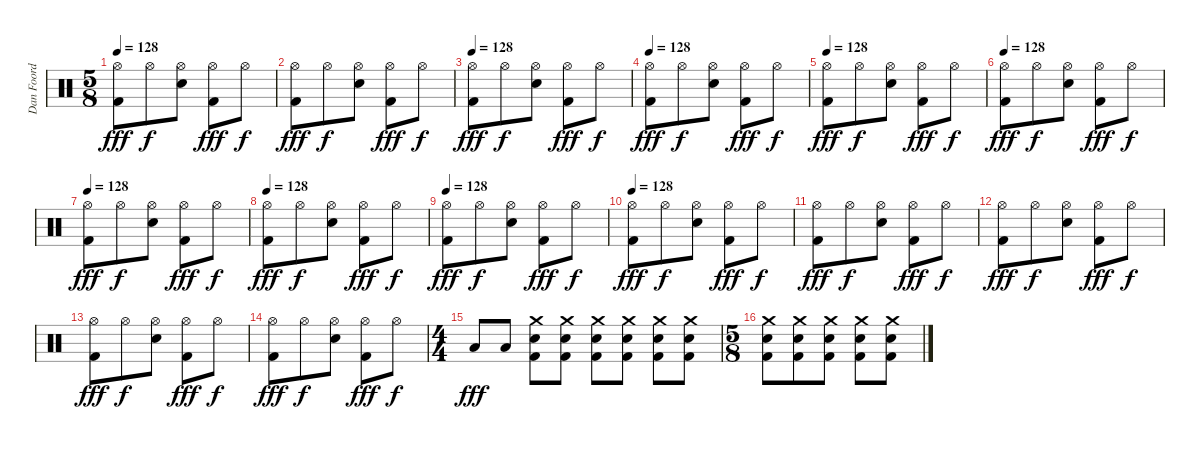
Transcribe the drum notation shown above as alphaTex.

\track ("Dan Foord 2" "Dan Foord ") {instrument percussion}
\staff {score}
\articulation defaults
\ts (5 8)
\tempo 128
\clef neutral
\ks c
("Kick (hit) 2" "Hi-Hat (open)").8{dy fff} "Hi-Hat (open)".8{dy f} ("Snare (hit) 2" "Hi-Hat (open)").8 ("Kick (hit) 2" "Hi-Hat (open)").8{dy fff} "Hi-Hat (open)".8{dy f} |
("Kick (hit) 2" "Hi-Hat (open)").8{dy fff} "Hi-Hat (open)".8{dy f} ("Snare (hit) 2" "Hi-Hat (open)").8 ("Kick (hit) 2" "Hi-Hat (open)").8{dy fff} "Hi-Hat (open)".8{dy f} |
\tempo 128
("Kick (hit) 2" "Hi-Hat (open)").8{dy fff} "Hi-Hat (open)".8{dy f} ("Snare (hit) 2" "Hi-Hat (open)").8 ("Kick (hit) 2" "Hi-Hat (open)").8{dy fff} "Hi-Hat (open)".8{dy f} |
\tempo 128
("Kick (hit) 2" "Hi-Hat (open)").8{dy fff} "Hi-Hat (open)".8{dy f} ("Snare (hit) 2" "Hi-Hat (open)").8 ("Kick (hit) 2" "Hi-Hat (open)").8{dy fff} "Hi-Hat (open)".8{dy f} |
\tempo 128
("Kick (hit) 2" "Hi-Hat (open)").8{dy fff} "Hi-Hat (open)".8{dy f} ("Snare (hit) 2" "Hi-Hat (open)").8 ("Kick (hit) 2" "Hi-Hat (open)").8{dy fff} "Hi-Hat (open)".8{dy f} |
\tempo 128
("Kick (hit) 2" "Hi-Hat (open)").8{dy fff} "Hi-Hat (open)".8{dy f} ("Snare (hit) 2" "Hi-Hat (open)").8 ("Kick (hit) 2" "Hi-Hat (open)").8{dy fff} "Hi-Hat (open)".8{dy f} |
\tempo 128
("Kick (hit) 2" "Hi-Hat (open)").8{dy fff} "Hi-Hat (open)".8{dy f} ("Snare (hit) 2" "Hi-Hat (open)").8 ("Kick (hit) 2" "Hi-Hat (open)").8{dy fff} "Hi-Hat (open)".8{dy f} |
\tempo 128
("Kick (hit) 2" "Hi-Hat (open)").8{dy fff} "Hi-Hat (open)".8{dy f} ("Snare (hit) 2" "Hi-Hat (open)").8 ("Kick (hit) 2" "Hi-Hat (open)").8{dy fff} "Hi-Hat (open)".8{dy f} |
\tempo 128
("Kick (hit) 2" "Hi-Hat (open)").8{dy fff} "Hi-Hat (open)".8{dy f} ("Snare (hit) 2" "Hi-Hat (open)").8 ("Kick (hit) 2" "Hi-Hat (open)").8{dy fff} "Hi-Hat (open)".8{dy f} |
\tempo 128
("Kick (hit) 2" "Hi-Hat (open)").8{dy fff} "Hi-Hat (open)".8{dy f} ("Snare (hit) 2" "Hi-Hat (open)").8 ("Kick (hit) 2" "Hi-Hat (open)").8{dy fff} "Hi-Hat (open)".8{dy f} |
("Kick (hit) 2" "Hi-Hat (open)").8{dy fff} "Hi-Hat (open)".8{dy f} ("Snare (hit) 2" "Hi-Hat (open)").8 ("Kick (hit) 2" "Hi-Hat (open)").8{dy fff} "Hi-Hat (open)".8{dy f} |
("Kick (hit) 2" "Hi-Hat (open)").8{dy fff} "Hi-Hat (open)".8{dy f} ("Snare (hit) 2" "Hi-Hat (open)").8 ("Kick (hit) 2" "Hi-Hat (open)").8{dy fff} "Hi-Hat (open)".8{dy f} |
("Kick (hit) 2" "Hi-Hat (open)").8{dy fff} "Hi-Hat (open)".8{dy f} ("Snare (hit) 2" "Hi-Hat (open)").8 ("Kick (hit) 2" "Hi-Hat (open)").8{dy fff} "Hi-Hat (open)".8{dy f} |
("Kick (hit) 2" "Hi-Hat (open)").8{dy fff} "Hi-Hat (open)".8{dy f} ("Snare (hit) 2" "Hi-Hat (open)").8 ("Kick (hit) 2" "Hi-Hat (open)").8{dy fff} "Hi-Hat (open)".8{dy f} |
\ts (4 4)
"Low Floor Tom (hit)".8{dy fff} "Low Floor Tom (hit)".8 ("Kick (hit) 2" "Snare (hit) 2" "Crash medium (hit)").8 ("Kick (hit) 2" "Snare (hit) 2" "Crash medium (hit)").8 ("Kick (hit) 2" "Snare (hit) 2" "Crash medium (hit)").8 ("Kick (hit) 2" "Snare (hit) 2" "Crash medium (hit)").8 ("Kick (hit) 2" "Snare (hit) 2" "Crash medium (hit)").8 ("Kick (hit) 2" "Snare (hit) 2" "Crash medium (hit)").8 |
\ts (5 8)
("Kick (hit) 2" "Snare (hit) 2" "Crash medium (hit)").8 ("Kick (hit) 2" "Snare (hit) 2" "Crash medium (hit)").8 ("Kick (hit) 2" "Snare (hit) 2" "Crash medium (hit)").8 ("Kick (hit) 2" "Snare (hit) 2" "Crash medium (hit)").8 ("Kick (hit) 2" "Snare (hit) 2" "Crash medium (hit)").8
